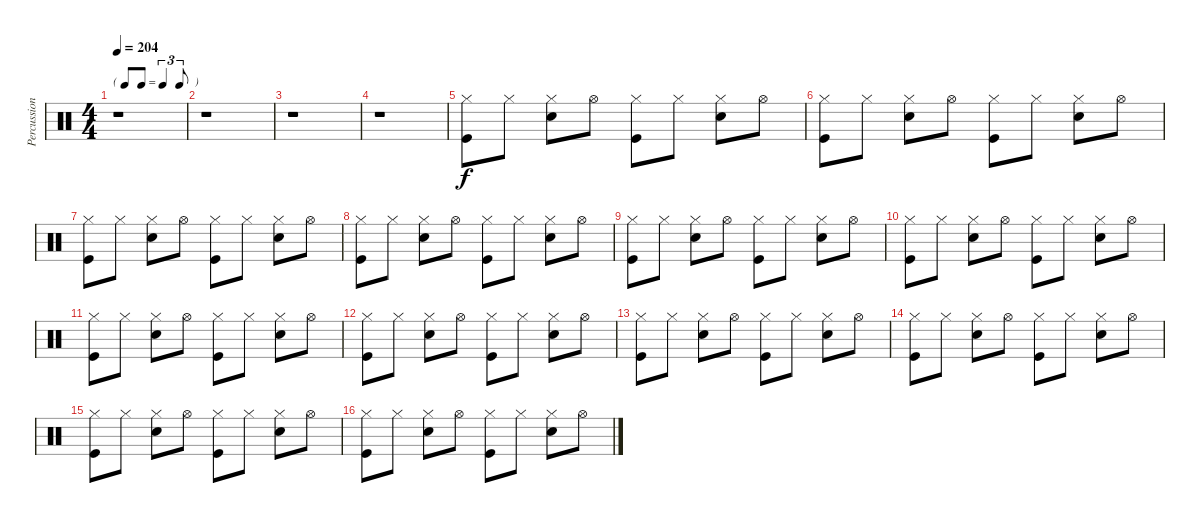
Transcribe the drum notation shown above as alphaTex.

\track ("Percussions" "Percussion") {instrument percussion}
\staff {score}
\articulation defaults
\ts (4 4)
\tf triplet8th
\tempo 204
\clef neutral
\ks c
r.1{dy f} |
r.1 |
r.1 |
r.1 |
("Hi-Hat (closed)" "Kick (hit)").8 "Hi-Hat (closed)".8 ("Hi-Hat (closed)" "Snare (hit) 2").8 "Hi-Hat (open)".8 ("Hi-Hat (closed)" "Kick (hit)").8 "Hi-Hat (closed)".8 ("Hi-Hat (closed)" "Snare (hit) 2").8 "Hi-Hat (open)".8 |
("Hi-Hat (closed)" "Kick (hit)").8 "Hi-Hat (closed)".8 ("Hi-Hat (closed)" "Snare (hit) 2").8 "Hi-Hat (open)".8 ("Hi-Hat (closed)" "Kick (hit)").8 "Hi-Hat (closed)".8 ("Hi-Hat (closed)" "Snare (hit) 2").8 "Hi-Hat (open)".8 |
("Hi-Hat (closed)" "Kick (hit)").8 "Hi-Hat (closed)".8 ("Hi-Hat (closed)" "Snare (hit) 2").8 "Hi-Hat (open)".8 ("Hi-Hat (closed)" "Kick (hit)").8 "Hi-Hat (closed)".8 ("Hi-Hat (closed)" "Snare (hit) 2").8 "Hi-Hat (open)".8 |
("Hi-Hat (closed)" "Kick (hit)").8 "Hi-Hat (closed)".8 ("Hi-Hat (closed)" "Snare (hit) 2").8 "Hi-Hat (open)".8 ("Hi-Hat (closed)" "Kick (hit)").8 "Hi-Hat (closed)".8 ("Hi-Hat (closed)" "Snare (hit) 2").8 "Hi-Hat (open)".8 |
("Hi-Hat (closed)" "Kick (hit)").8 "Hi-Hat (closed)".8 ("Hi-Hat (closed)" "Snare (hit) 2").8 "Hi-Hat (open)".8 ("Hi-Hat (closed)" "Kick (hit)").8 "Hi-Hat (closed)".8 ("Hi-Hat (closed)" "Snare (hit) 2").8 "Hi-Hat (open)".8 |
("Hi-Hat (closed)" "Kick (hit)").8 "Hi-Hat (closed)".8 ("Hi-Hat (closed)" "Snare (hit) 2").8 "Hi-Hat (open)".8 ("Hi-Hat (closed)" "Kick (hit)").8 "Hi-Hat (closed)".8 ("Hi-Hat (closed)" "Snare (hit) 2").8 "Hi-Hat (open)".8 |
("Hi-Hat (closed)" "Kick (hit)").8 "Hi-Hat (closed)".8 ("Hi-Hat (closed)" "Snare (hit) 2").8 "Hi-Hat (open)".8 ("Hi-Hat (closed)" "Kick (hit)").8 "Hi-Hat (closed)".8 ("Hi-Hat (closed)" "Snare (hit) 2").8 "Hi-Hat (open)".8 |
("Hi-Hat (closed)" "Kick (hit)").8 "Hi-Hat (closed)".8 ("Hi-Hat (closed)" "Snare (hit) 2").8 "Hi-Hat (open)".8 ("Hi-Hat (closed)" "Kick (hit)").8 "Hi-Hat (closed)".8 ("Hi-Hat (closed)" "Snare (hit) 2").8 "Hi-Hat (open)".8 |
("Hi-Hat (closed)" "Kick (hit)").8 "Hi-Hat (closed)".8 ("Hi-Hat (closed)" "Snare (hit) 2").8 "Hi-Hat (open)".8 ("Hi-Hat (closed)" "Kick (hit)").8 "Hi-Hat (closed)".8 ("Hi-Hat (closed)" "Snare (hit) 2").8 "Hi-Hat (open)".8 |
("Hi-Hat (closed)" "Kick (hit)").8 "Hi-Hat (closed)".8 ("Hi-Hat (closed)" "Snare (hit) 2").8 "Hi-Hat (open)".8 ("Hi-Hat (closed)" "Kick (hit)").8 "Hi-Hat (closed)".8 ("Hi-Hat (closed)" "Snare (hit) 2").8 "Hi-Hat (open)".8 |
("Hi-Hat (closed)" "Kick (hit)").8 "Hi-Hat (closed)".8 ("Hi-Hat (closed)" "Snare (hit) 2").8 "Hi-Hat (open)".8 ("Hi-Hat (closed)" "Kick (hit)").8 "Hi-Hat (closed)".8 ("Hi-Hat (closed)" "Snare (hit) 2").8 "Hi-Hat (open)".8 |
("Hi-Hat (closed)" "Kick (hit)").8 "Hi-Hat (closed)".8 ("Hi-Hat (closed)" "Snare (hit) 2").8 "Hi-Hat (open)".8 ("Hi-Hat (closed)" "Kick (hit)").8 "Hi-Hat (closed)".8 ("Hi-Hat (closed)" "Snare (hit) 2").8 "Hi-Hat (open)".8
